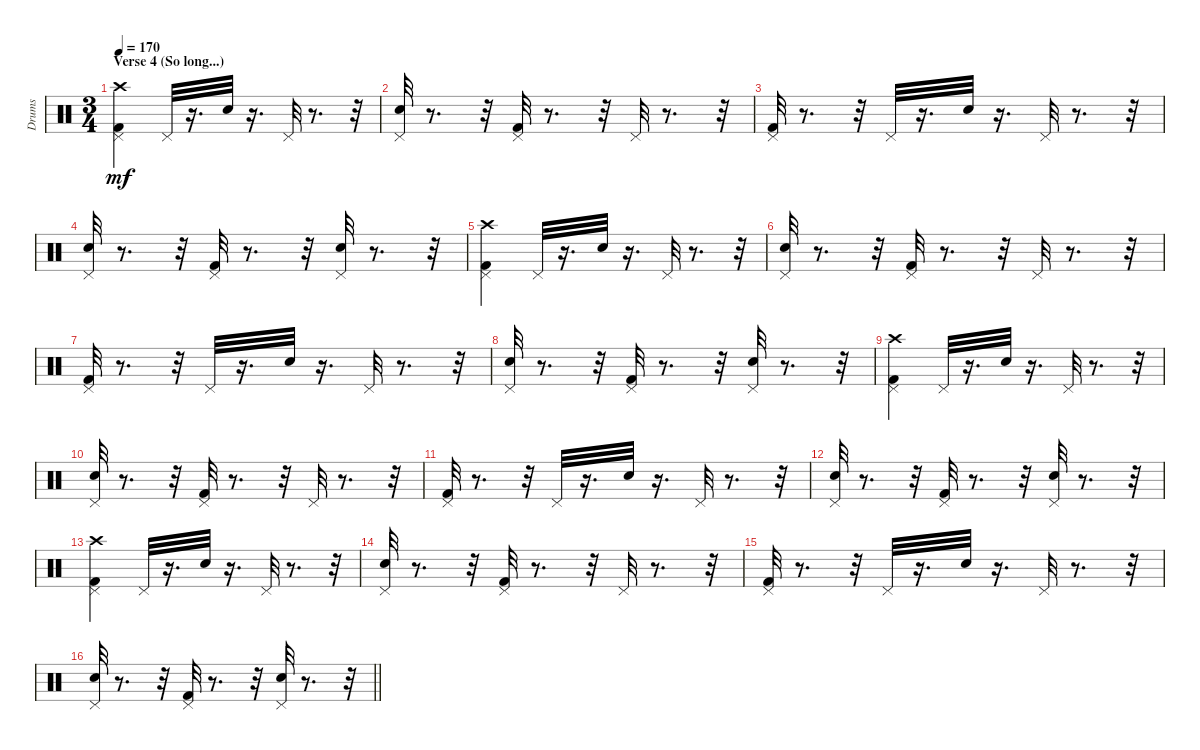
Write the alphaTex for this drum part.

\track ("Drums" "Drums") {instrument percussion}
\staff {score}
\articulation defaults
\ts (3 4)
\section ("" "Verse 4 (So long...)")
\tempo 170
\clef neutral
\ks c
("Kick (hit) 2" "Pedal Hi-Hat (hit)" "Crash high (hit)").4{dy mf} "Pedal Hi-Hat (hit)".32 r.16{d} "Snare (hit) 2".32 r.16{d} "Pedal Hi-Hat (hit)".32 r.8{d} r.32 |
("Snare (hit) 2" "Pedal Hi-Hat (hit)").32 r.8{d} r.32 ("Kick (hit) 2" "Pedal Hi-Hat (hit)").32 r.8{d} r.32 "Pedal Hi-Hat (hit)".32 r.8{d} r.32 |
("Kick (hit) 2" "Pedal Hi-Hat (hit)").32 r.8{d} r.32 "Pedal Hi-Hat (hit)".32 r.16{d} "Snare (hit) 2".32 r.16{d} "Pedal Hi-Hat (hit)".32 r.8{d} r.32 |
("Snare (hit) 2" "Pedal Hi-Hat (hit)").32 r.8{d} r.32 ("Kick (hit) 2" "Pedal Hi-Hat (hit)").32 r.8{d} r.32 ("Snare (hit) 2" "Pedal Hi-Hat (hit)").32 r.8{d} r.32 |
("Kick (hit) 2" "Pedal Hi-Hat (hit)" "Crash high (hit)").4 "Pedal Hi-Hat (hit)".32 r.16{d} "Snare (hit) 2".32 r.16{d} "Pedal Hi-Hat (hit)".32 r.8{d} r.32 |
("Snare (hit) 2" "Pedal Hi-Hat (hit)").32 r.8{d} r.32 ("Kick (hit) 2" "Pedal Hi-Hat (hit)").32 r.8{d} r.32 "Pedal Hi-Hat (hit)".32 r.8{d} r.32 |
("Kick (hit) 2" "Pedal Hi-Hat (hit)").32 r.8{d} r.32 "Pedal Hi-Hat (hit)".32 r.16{d} "Snare (hit) 2".32 r.16{d} "Pedal Hi-Hat (hit)".32 r.8{d} r.32 |
("Snare (hit) 2" "Pedal Hi-Hat (hit)").32 r.8{d} r.32 ("Kick (hit) 2" "Pedal Hi-Hat (hit)").32 r.8{d} r.32 ("Snare (hit) 2" "Pedal Hi-Hat (hit)").32 r.8{d} r.32 |
("Kick (hit) 2" "Pedal Hi-Hat (hit)" "Crash high (hit)").4 "Pedal Hi-Hat (hit)".32 r.16{d} "Snare (hit) 2".32 r.16{d} "Pedal Hi-Hat (hit)".32 r.8{d} r.32 |
("Snare (hit) 2" "Pedal Hi-Hat (hit)").32 r.8{d} r.32 ("Kick (hit) 2" "Pedal Hi-Hat (hit)").32 r.8{d} r.32 "Pedal Hi-Hat (hit)".32 r.8{d} r.32 |
("Kick (hit) 2" "Pedal Hi-Hat (hit)").32 r.8{d} r.32 "Pedal Hi-Hat (hit)".32 r.16{d} "Snare (hit) 2".32 r.16{d} "Pedal Hi-Hat (hit)".32 r.8{d} r.32 |
("Snare (hit) 2" "Pedal Hi-Hat (hit)").32 r.8{d} r.32 ("Kick (hit) 2" "Pedal Hi-Hat (hit)").32 r.8{d} r.32 ("Snare (hit) 2" "Pedal Hi-Hat (hit)").32 r.8{d} r.32 |
("Kick (hit) 2" "Pedal Hi-Hat (hit)" "Crash high (hit)").4 "Pedal Hi-Hat (hit)".32 r.16{d} "Snare (hit) 2".32 r.16{d} "Pedal Hi-Hat (hit)".32 r.8{d} r.32 |
("Snare (hit) 2" "Pedal Hi-Hat (hit)").32 r.8{d} r.32 ("Kick (hit) 2" "Pedal Hi-Hat (hit)").32 r.8{d} r.32 "Pedal Hi-Hat (hit)".32 r.8{d} r.32 |
("Kick (hit) 2" "Pedal Hi-Hat (hit)").32 r.8{d} r.32 "Pedal Hi-Hat (hit)".32 r.16{d} "Snare (hit) 2".32 r.16{d} "Pedal Hi-Hat (hit)".32 r.8{d} r.32 |
\barLineRight lightlight
("Snare (hit) 2" "Pedal Hi-Hat (hit)").32 r.8{d} r.32 ("Kick (hit) 2" "Pedal Hi-Hat (hit)").32 r.8{d} r.32 ("Snare (hit) 2" "Pedal Hi-Hat (hit)").32 r.8{d} r.32
